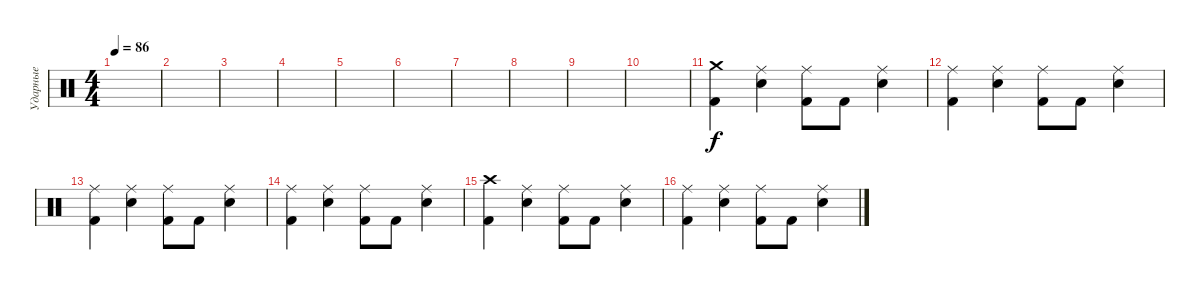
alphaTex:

\track ("Ударные" "Ударные") {instrument percussion}
\staff {score}
\articulation defaults
\ts (4 4)
\tempo 86
\clef neutral
\ks c
|
|
|
|
|
|
|
|
|
|
("Crash medium (hit)" "Kick (hit) 2").4 ("Ride (middle)" "Electric Snare (hit)").4 ("Ride (middle)" "Kick (hit) 2").8 "Kick (hit) 2".8 ("Ride (middle)" "Electric Snare (hit)").4 |
("Ride (middle)" "Kick (hit) 2").4 ("Ride (middle)" "Electric Snare (hit)").4 ("Ride (middle)" "Kick (hit) 2").8 "Kick (hit) 2".8 ("Ride (middle)" "Electric Snare (hit)").4 |
("Ride (middle)" "Kick (hit) 2").4 ("Ride (middle)" "Electric Snare (hit)").4 ("Ride (middle)" "Kick (hit) 2").8 "Kick (hit) 2".8 ("Ride (middle)" "Electric Snare (hit)").4 |
("Ride (middle)" "Kick (hit) 2").4 ("Ride (middle)" "Electric Snare (hit)").4 ("Ride (middle)" "Kick (hit) 2").8 "Kick (hit) 2".8 ("Ride (middle)" "Electric Snare (hit)").4 |
("Crash high (hit)" "Kick (hit) 2").4 ("Ride (middle)" "Electric Snare (hit)").4 ("Ride (middle)" "Kick (hit) 2").8 "Kick (hit) 2".8 ("Ride (middle)" "Electric Snare (hit)").4 |
("Ride (middle)" "Kick (hit) 2").4 ("Ride (middle)" "Electric Snare (hit)").4 ("Ride (middle)" "Kick (hit) 2").8 "Kick (hit) 2".8 ("Ride (middle)" "Electric Snare (hit)").4
